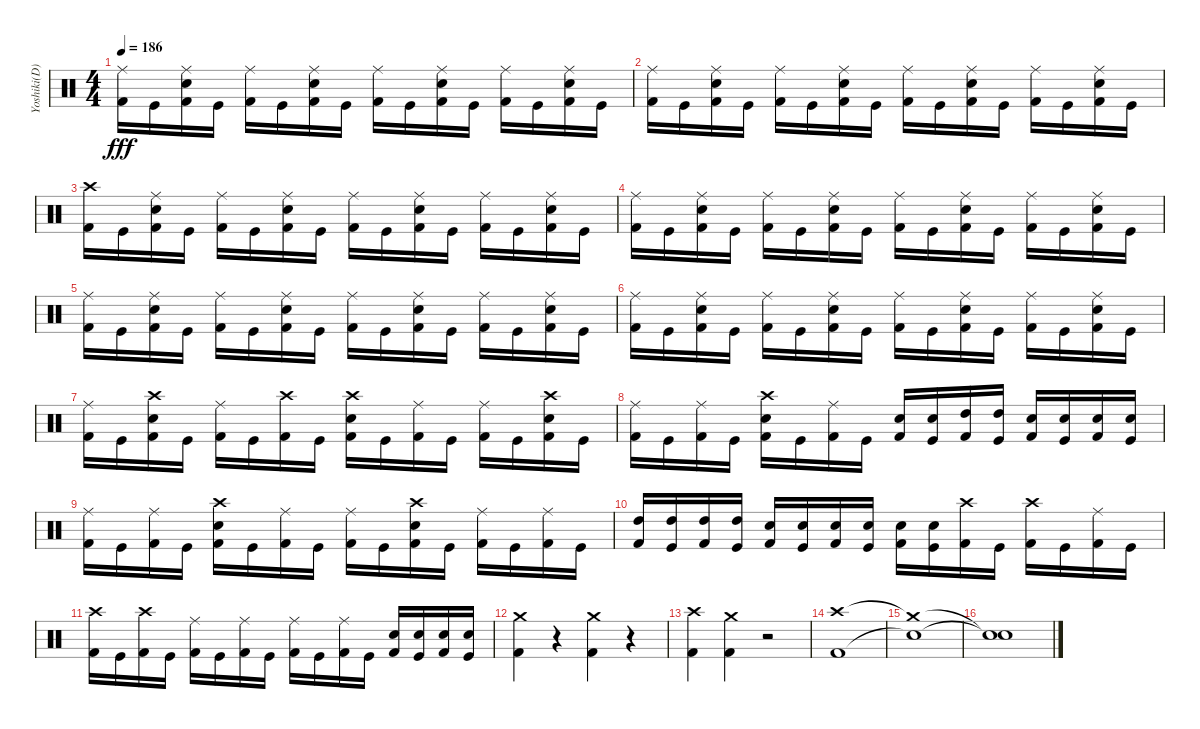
\track ("Yoshiki(D)" "Yoshiki(D)") {instrument percussion}
\staff {score}
\articulation defaults
\ts (4 4)
\tempo 186
\clef neutral
\ks c
("Ride (middle)" "Kick (hit) 2").16{dy fff} "Kick (hit)".16 ("Ride (middle)" "Electric Snare (hit)" "Kick (hit) 2").16 "Kick (hit)".16 ("Ride (middle)" "Kick (hit) 2").16 "Kick (hit)".16 ("Ride (middle)" "Electric Snare (hit)" "Kick (hit) 2").16 "Kick (hit)".16 ("Ride (middle)" "Kick (hit) 2").16 "Kick (hit)".16 ("Ride (middle)" "Electric Snare (hit)" "Kick (hit) 2").16 "Kick (hit)".16 ("Ride (middle)" "Kick (hit) 2").16 "Kick (hit)".16 ("Ride (middle)" "Electric Snare (hit)" "Kick (hit) 2").16 "Kick (hit)".16 |
("Ride (middle)" "Kick (hit) 2").16 "Kick (hit)".16 ("Ride (middle)" "Electric Snare (hit)" "Kick (hit) 2").16 "Kick (hit)".16 ("Ride (middle)" "Kick (hit) 2").16 "Kick (hit)".16 ("Ride (middle)" "Electric Snare (hit)" "Kick (hit) 2").16 "Kick (hit)".16 ("Ride (middle)" "Kick (hit) 2").16 "Kick (hit)".16 ("Ride (middle)" "Electric Snare (hit)" "Kick (hit) 2").16 "Kick (hit)".16 ("Ride (middle)" "Kick (hit) 2").16 "Kick (hit)".16 ("Ride (middle)" "Electric Snare (hit)" "Kick (hit) 2").16 "Kick (hit)".16 |
("Crash high (hit)" "Kick (hit) 2").16 "Kick (hit)".16 ("Ride (middle)" "Electric Snare (hit)" "Kick (hit) 2").16 "Kick (hit)".16 ("Ride (middle)" "Kick (hit) 2").16 "Kick (hit)".16 ("Ride (middle)" "Electric Snare (hit)" "Kick (hit) 2").16 "Kick (hit)".16 ("Ride (middle)" "Kick (hit) 2").16 "Kick (hit)".16 ("Ride (middle)" "Electric Snare (hit)" "Kick (hit) 2").16 "Kick (hit)".16 ("Ride (middle)" "Kick (hit) 2").16 "Kick (hit)".16 ("Ride (middle)" "Electric Snare (hit)" "Kick (hit) 2").16 "Kick (hit)".16 |
("Ride (middle)" "Kick (hit) 2").16 "Kick (hit)".16 ("Ride (middle)" "Electric Snare (hit)" "Kick (hit) 2").16 "Kick (hit)".16 ("Ride (middle)" "Kick (hit) 2").16 "Kick (hit)".16 ("Ride (middle)" "Electric Snare (hit)" "Kick (hit) 2").16 "Kick (hit)".16 ("Ride (middle)" "Kick (hit) 2").16 "Kick (hit)".16 ("Ride (middle)" "Electric Snare (hit)" "Kick (hit) 2").16 "Kick (hit)".16 ("Ride (middle)" "Kick (hit) 2").16 "Kick (hit)".16 ("Ride (middle)" "Electric Snare (hit)" "Kick (hit) 2").16 "Kick (hit)".16 |
("Ride (middle)" "Kick (hit) 2").16 "Kick (hit)".16 ("Ride (middle)" "Electric Snare (hit)" "Kick (hit) 2").16 "Kick (hit)".16 ("Ride (middle)" "Kick (hit) 2").16 "Kick (hit)".16 ("Ride (middle)" "Electric Snare (hit)" "Kick (hit) 2").16 "Kick (hit)".16 ("Ride (middle)" "Kick (hit) 2").16 "Kick (hit)".16 ("Ride (middle)" "Electric Snare (hit)" "Kick (hit) 2").16 "Kick (hit)".16 ("Ride (middle)" "Kick (hit) 2").16 "Kick (hit)".16 ("Ride (middle)" "Electric Snare (hit)" "Kick (hit) 2").16 "Kick (hit)".16 |
("Ride (middle)" "Kick (hit) 2").16 "Kick (hit)".16 ("Ride (middle)" "Electric Snare (hit)" "Kick (hit) 2").16 "Kick (hit)".16 ("Ride (middle)" "Kick (hit) 2").16 "Kick (hit)".16 ("Ride (middle)" "Electric Snare (hit)" "Kick (hit) 2").16 "Kick (hit)".16 ("Ride (middle)" "Kick (hit) 2").16 "Kick (hit)".16 ("Ride (middle)" "Electric Snare (hit)" "Kick (hit) 2").16 "Kick (hit)".16 ("Ride (middle)" "Kick (hit) 2").16 "Kick (hit)".16 ("Ride (middle)" "Electric Snare (hit)" "Kick (hit) 2").16 "Kick (hit)".16 |
("Ride (middle)" "Kick (hit) 2").16 "Kick (hit)".16 ("Crash high (hit)" "Electric Snare (hit)" "Kick (hit) 2").16 "Kick (hit)".16 ("Ride (middle)" "Kick (hit) 2").16 "Kick (hit)".16 ("Crash high (hit)" "Kick (hit) 2").16 "Kick (hit)".16 ("Crash high (hit)" "Electric Snare (hit)" "Kick (hit) 2").16 "Kick (hit)".16 ("Ride (middle)" "Kick (hit) 2").16 "Kick (hit)".16 ("Ride (middle)" "Kick (hit) 2").16 "Kick (hit)".16 ("Crash high (hit)" "Electric Snare (hit)" "Kick (hit) 2").16 "Kick (hit)".16 |
("Ride (middle)" "Kick (hit) 2").16 "Kick (hit)".16 ("Ride (middle)" "Kick (hit) 2").16 "Kick (hit)".16 ("Crash high (hit)" "Electric Snare (hit)" "Kick (hit) 2").16 "Kick (hit)".16 ("Ride (middle)" "Kick (hit) 2").16 "Kick (hit)".16 ("Electric Snare (hit)" "Kick (hit) 2").16 ("Electric Snare (hit)" "Kick (hit)").16 ("High Tom (hit)" "Kick (hit) 2").16 ("High Tom (hit)" "Kick (hit)").16 ("Electric Snare (hit)" "Kick (hit) 2").16 ("Electric Snare (hit)" "Kick (hit)").16 ("Electric Snare (hit)" "Kick (hit) 2").16 ("Electric Snare (hit)" "Kick (hit)").16 |
("Ride (middle)" "Kick (hit) 2").16 "Kick (hit)".16 ("Ride (middle)" "Kick (hit) 2").16 "Kick (hit)".16 ("Crash high (hit)" "Electric Snare (hit)" "Kick (hit) 2").16 "Kick (hit)".16 ("Ride (middle)" "Kick (hit) 2").16 "Kick (hit)".16 ("Ride (middle)" "Kick (hit) 2").16 "Kick (hit)".16 ("Crash high (hit)" "Electric Snare (hit)" "Kick (hit) 2").16 "Kick (hit)".16 ("Ride (middle)" "Kick (hit) 2").16 "Kick (hit)".16 ("Ride (middle)" "Kick (hit) 2").16 "Kick (hit)".16 |
("High Tom (hit)" "Kick (hit) 2").16 ("High Tom (hit)" "Kick (hit)").16 ("High Tom (hit)" "Kick (hit) 2").16 ("High Tom (hit)" "Kick (hit)").16 ("Electric Snare (hit)" "Kick (hit) 2").16 ("Electric Snare (hit)" "Kick (hit)").16 ("Electric Snare (hit)" "Kick (hit) 2").16 ("Electric Snare (hit)" "Kick (hit)").16 ("Electric Snare (hit)" "Kick (hit) 2").16 ("Electric Snare (hit)" "Kick (hit)").16 ("Crash high (hit)" "Kick (hit) 2").16 "Kick (hit)".16 ("Crash high (hit)" "Kick (hit) 2").16 "Kick (hit)".16 ("Ride (middle)" "Kick (hit) 2").16 "Kick (hit)".16 |
("Crash high (hit)" "Kick (hit) 2").16 "Kick (hit)".16 ("Crash high (hit)" "Kick (hit) 2").16 "Kick (hit)".16 ("Ride (middle)" "Kick (hit) 2").16 "Kick (hit)".16 ("Ride (middle)" "Kick (hit) 2").16 "Kick (hit)".16 ("Ride (middle)" "Kick (hit) 2").16 "Kick (hit)".16 ("Ride (middle)" "Kick (hit) 2").16 "Kick (hit)".16 ("Electric Snare (hit)" "Kick (hit) 2").16 ("Electric Snare (hit)" "Kick (hit)").16 ("Electric Snare (hit)" "Kick (hit) 2").16 ("Electric Snare (hit)" "Kick (hit)").16 |
("Crash medium (hit)" "Kick (hit) 2").4 r.4 ("Crash medium (hit)" "Kick (hit) 2").4 r.4 |
("Crash high (hit)" "Kick (hit) 2").4 ("Crash medium (hit)" "Kick (hit) 2").4 r.2 |
("Crash high (hit)" "Kick (hit) 2").1 |
("Crash medium (hit)"{t} "Snare (hit)"{t}).1 |
("Snare (hit)"{t} "Snare (hit)"{t}).1
